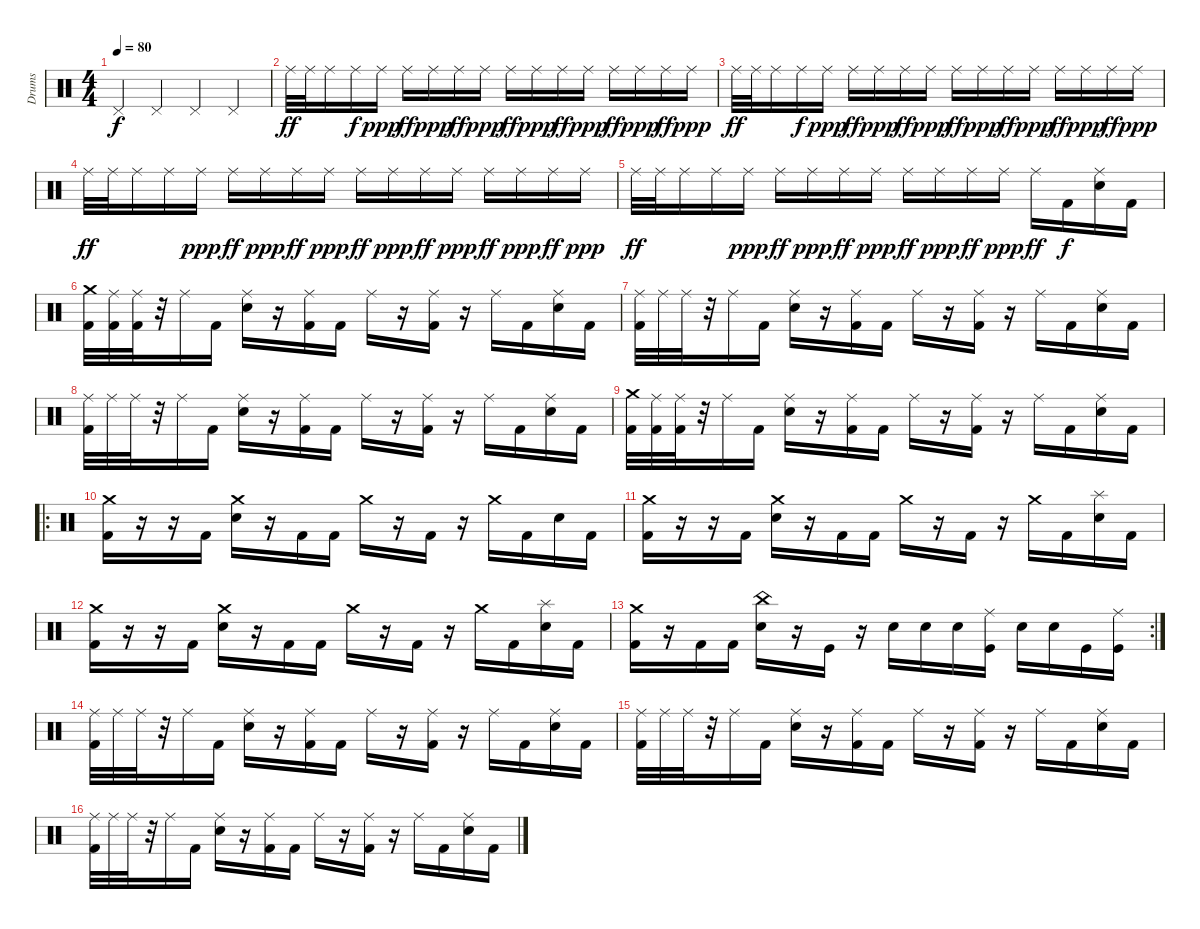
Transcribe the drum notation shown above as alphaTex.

\track ("Drums" "Drums") {instrument percussion}
\staff {score}
\articulation defaults
\ts (4 4)
\tempo 80
\clef neutral
\ks c "Pedal Hi-Hat (hit)".4{dy f} "Pedal Hi-Hat (hit)".4 "Pedal Hi-Hat (hit)".4 "Pedal Hi-Hat (hit)".4
|
"Ride (middle)".32{dy ff} "Ride (middle)".32 "Ride (middle)".16 "Ride (middle)".16{dy f} "Ride (middle)".16{dy ppp} "Ride (middle)".16{dy ff} "Ride (middle)".16{dy ppp} "Ride (middle)".16{dy ff} "Ride (middle)".16{dy ppp} "Ride (middle)".16{dy ff} "Ride (middle)".16{dy ppp} "Ride (middle)".16{dy ff} "Ride (middle)".16{dy ppp} "Ride (middle)".16{dy ff} "Ride (middle)".16{dy ppp} "Ride (middle)".16{dy ff} "Ride (middle)".16{dy ppp} |
"Ride (middle)".32{dy ff} "Ride (middle)".32 "Ride (middle)".16 "Ride (middle)".16{dy f} "Ride (middle)".16{dy ppp} "Ride (middle)".16{dy ff} "Ride (middle)".16{dy ppp} "Ride (middle)".16{dy ff} "Ride (middle)".16{dy ppp} "Ride (middle)".16{dy ff} "Ride (middle)".16{dy ppp} "Ride (middle)".16{dy ff} "Ride (middle)".16{dy ppp} "Ride (middle)".16{dy ff} "Ride (middle)".16{dy ppp} "Ride (middle)".16{dy ff} "Ride (middle)".16{dy ppp} |
"Ride (middle)".32{dy ff} "Ride (middle)".32 "Ride (middle)".16 "Ride (middle)".16 "Ride (middle)".16{dy ppp} "Ride (middle)".16{dy ff} "Ride (middle)".16{dy ppp} "Ride (middle)".16{dy ff} "Ride (middle)".16{dy ppp} "Ride (middle)".16{dy ff} "Ride (middle)".16{dy ppp} "Ride (middle)".16{dy ff} "Ride (middle)".16{dy ppp} "Ride (middle)".16{dy ff} "Ride (middle)".16{dy ppp} "Ride (middle)".16{dy ff} "Ride (middle)".16{dy ppp} |
"Ride (middle)".32{dy ff} "Ride (middle)".32 "Ride (middle)".16 "Ride (middle)".16 "Ride (middle)".16{dy ppp} "Ride (middle)".16{dy ff} "Ride (middle)".16{dy ppp} "Ride (middle)".16{dy ff} "Ride (middle)".16{dy ppp} "Ride (middle)".16{dy ff} "Ride (middle)".16{dy ppp} "Ride (middle)".16{dy ff} "Ride (middle)".16{dy ppp} "Ride (middle)".16{dy ff} "Kick (hit) 2".16{dy f} ("Ride (middle)" "Snare (hit) 2").16 "Kick (hit) 2".16 |
("Crash medium (hit)" "Kick (hit) 2").32 ("Ride (middle)" "Kick (hit) 2").32 ("Ride (middle)" "Kick (hit) 2").32 r.32 "Ride (middle)".16 "Kick (hit) 2".16 ("Ride (middle)" "Snare (hit) 2").16 r.16 ("Ride (middle)" "Kick (hit) 2").16 "Kick (hit) 2".16 "Ride (middle)".16 r.16 ("Ride (middle)" "Kick (hit) 2").16 r.16 "Ride (middle)".16 "Kick (hit) 2".16 ("Ride (middle)" "Snare (hit) 2").16 "Kick (hit) 2".16 |
("Ride (middle)" "Kick (hit) 2").32 "Ride (middle)".32 "Ride (middle)".32 r.32 "Ride (middle)".16 "Kick (hit) 2".16 ("Ride (middle)" "Snare (hit) 2").16 r.16 ("Ride (middle)" "Kick (hit) 2").16 "Kick (hit) 2".16 "Ride (middle)".16 r.16 ("Ride (middle)" "Kick (hit) 2").16 r.16 "Ride (middle)".16 "Kick (hit) 2".16 ("Ride (middle)" "Snare (hit) 2").16 "Kick (hit) 2".16 |
("Ride (middle)" "Kick (hit) 2").32 "Ride (middle)".32 "Ride (middle)".32 r.32 "Ride (middle)".16 "Kick (hit) 2".16 ("Ride (middle)" "Snare (hit) 2").16 r.16 ("Ride (middle)" "Kick (hit) 2").16 "Kick (hit) 2".16 "Ride (middle)".16 r.16 ("Ride (middle)" "Kick (hit) 2").16 r.16 "Ride (middle)".16 "Kick (hit) 2".16 ("Ride (middle)" "Snare (hit) 2").16 "Kick (hit) 2".16 |
("Crash medium (hit)" "Kick (hit) 2").32 ("Ride (middle)" "Kick (hit) 2").32 ("Ride (middle)" "Kick (hit) 2").32 r.32 "Ride (middle)".16 "Kick (hit) 2".16 ("Ride (middle)" "Snare (hit) 2").16 r.16 ("Ride (middle)" "Kick (hit) 2").16 "Kick (hit) 2".16 "Ride (middle)".16 r.16 ("Ride (middle)" "Kick (hit) 2").16 r.16 "Ride (middle)".16 "Kick (hit) 2".16 ("Ride (middle)" "Snare (hit) 2").16 "Kick (hit) 2".16 |
\ro
("Crash medium (hit)" "Kick (hit) 2").16 r.16 r.16 "Kick (hit) 2".16 ("Crash medium (hit)" "Snare (hit) 2").16 r.16 "Kick (hit) 2".16 "Kick (hit) 2".16 "Crash medium (hit)".16 r.16 "Kick (hit) 2".16 r.16 "Crash medium (hit)".16 "Kick (hit) 2".16 "Snare (hit) 2".16 "Kick (hit) 2".16 |
("Crash medium (hit)" "Kick (hit) 2").16 r.16 r.16 "Kick (hit) 2".16 ("Crash medium (hit)" "Snare (hit) 2").16 r.16 "Kick (hit) 2".16 "Kick (hit) 2".16 "Crash medium (hit)".16 r.16 "Kick (hit) 2".16 r.16 "Crash medium (hit)".16 "Kick (hit) 2".16 ("Splash (hit)" "Snare (hit) 2").16 "Kick (hit) 2".16 |
("Crash medium (hit)" "Kick (hit) 2").16 r.16 r.16 "Kick (hit) 2".16 ("Crash medium (hit)" "Snare (hit) 2").16 r.16 "Kick (hit) 2".16 "Kick (hit) 2".16 "Crash medium (hit)".16 r.16 "Kick (hit) 2".16 r.16 "Crash medium (hit)".16 "Kick (hit) 2".16 ("Splash (hit)" "Snare (hit) 2").16 "Kick (hit) 2".16 |
\rc 2
("Crash medium (hit)" "Kick (hit) 2").16 r.16 "Kick (hit) 2".16 "Kick (hit) 2".16 ("China (hit)" "Snare (hit) 2").16 r.16 "Kick (hit)".16 r.16 "Snare (hit) 2".16 "Snare (hit) 2".16 "Snare (hit) 2".16 ("Ride (middle)" "Kick (hit)").16 "Snare (hit) 2".16 "Snare (hit) 2".16 "Kick (hit)".16 ("Ride (middle)" "Kick (hit)").16 |
("Ride (middle)" "Kick (hit) 2").32 "Ride (middle)".32 "Ride (middle)".32 r.32 "Ride (middle)".16 "Kick (hit) 2".16 ("Ride (middle)" "Snare (hit) 2").16 r.16 ("Ride (middle)" "Kick (hit) 2").16 "Kick (hit) 2".16 "Ride (middle)".16 r.16 ("Ride (middle)" "Kick (hit) 2").16 r.16 "Ride (middle)".16 "Kick (hit) 2".16 ("Ride (middle)" "Snare (hit) 2").16 "Kick (hit) 2".16 |
("Ride (middle)" "Kick (hit) 2").32 "Ride (middle)".32 "Ride (middle)".32 r.32 "Ride (middle)".16 "Kick (hit) 2".16 ("Ride (middle)" "Snare (hit) 2").16 r.16 ("Ride (middle)" "Kick (hit) 2").16 "Kick (hit) 2".16 "Ride (middle)".16 r.16 ("Ride (middle)" "Kick (hit) 2").16 r.16 "Ride (middle)".16 "Kick (hit) 2".16 ("Ride (middle)" "Snare (hit) 2").16 "Kick (hit) 2".16 |
("Ride (middle)" "Kick (hit) 2").32 "Ride (middle)".32 "Ride (middle)".32 r.32 "Ride (middle)".16 "Kick (hit) 2".16 ("Ride (middle)" "Snare (hit) 2").16 r.16 ("Ride (middle)" "Kick (hit) 2").16 "Kick (hit) 2".16 "Ride (middle)".16 r.16 ("Ride (middle)" "Kick (hit) 2").16 r.16 "Ride (middle)".16 "Kick (hit) 2".16 ("Ride (middle)" "Snare (hit) 2").16 "Kick (hit) 2".16
